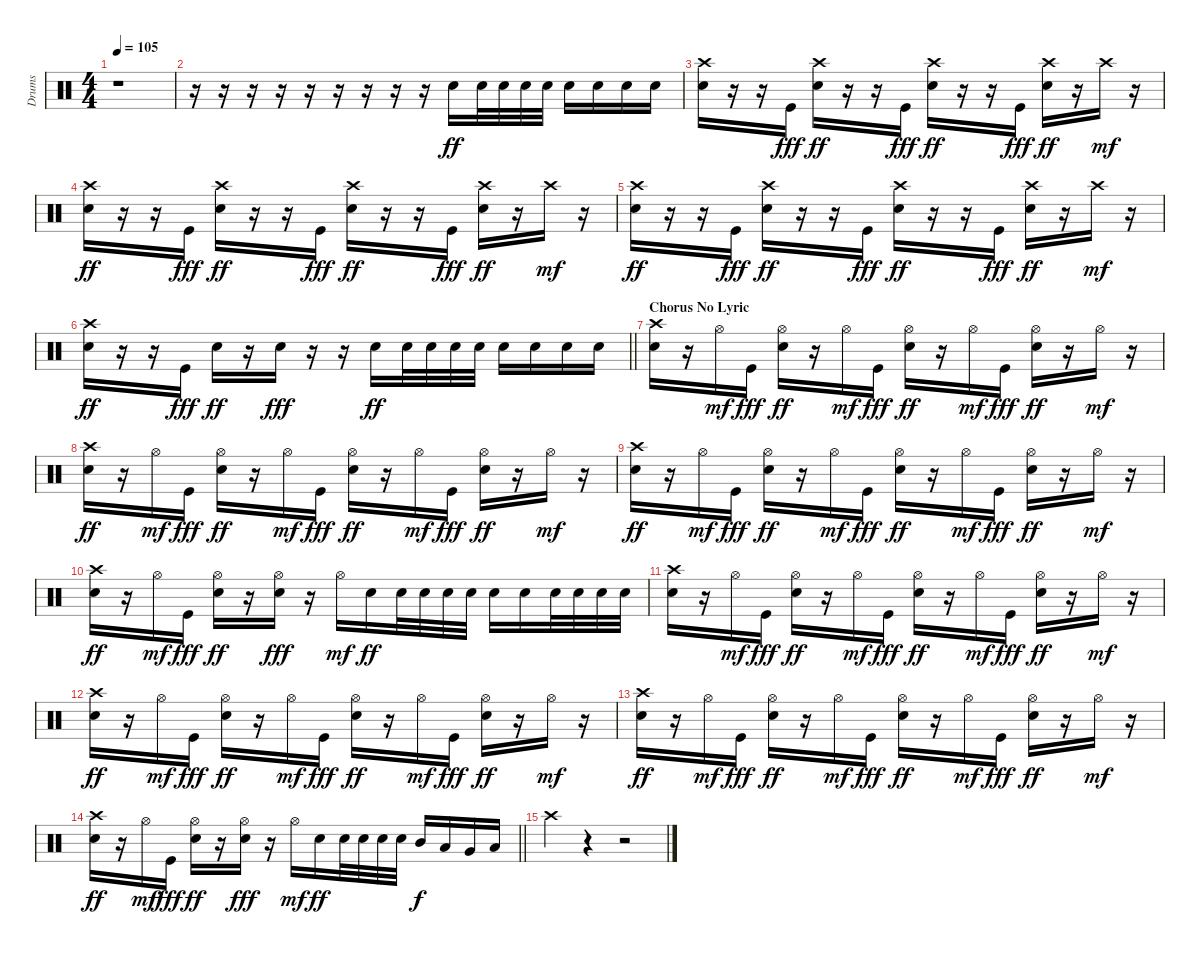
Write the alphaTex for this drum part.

\track ("Drums" "Drums") {instrument percussion}
\staff {score}
\articulation defaults
\ts (4 4)
\tempo 105
\clef neutral
\ks c
r.1{dy f} |
r.16 r.16 r.16 r.16 r.16 r.16 r.16 r.16 r.16 "Electric Snare (hit)".16{dy ff} "Electric Snare (hit)".32 "Electric Snare (hit)".32 "Electric Snare (hit)".32 "Electric Snare (hit)".32 "Electric Snare (hit)".16 "Electric Snare (hit)".16 "Electric Snare (hit)".16 "Electric Snare (hit)".16 |
("Crash high (hit)" "Electric Snare (hit)").16 r.16 r.16 "Kick (hit)".16{dy fff} ("Crash high (hit)" "Electric Snare (hit)").16{dy ff} r.16 r.16 "Kick (hit)".16{dy fff} ("Crash high (hit)" "Electric Snare (hit)").16{dy ff} r.16 r.16 "Kick (hit)".16{dy fff} ("Crash high (hit)" "Electric Snare (hit)").16{dy ff} r.16 "Crash high (hit)".16{dy mf} r.16 |
("Crash high (hit)" "Electric Snare (hit)").16{dy ff} r.16 r.16 "Kick (hit)".16{dy fff} ("Crash high (hit)" "Electric Snare (hit)").16{dy ff} r.16 r.16 "Kick (hit)".16{dy fff} ("Crash high (hit)" "Electric Snare (hit)").16{dy ff} r.16 r.16 "Kick (hit)".16{dy fff} ("Crash high (hit)" "Electric Snare (hit)").16{dy ff} r.16 "Crash high (hit)".16{dy mf} r.16 |
("Crash high (hit)" "Electric Snare (hit)").16{dy ff} r.16 r.16 "Kick (hit)".16{dy fff} ("Crash high (hit)" "Electric Snare (hit)").16{dy ff} r.16 r.16 "Kick (hit)".16{dy fff} ("Crash high (hit)" "Electric Snare (hit)").16{dy ff} r.16 r.16 "Kick (hit)".16{dy fff} ("Crash high (hit)" "Electric Snare (hit)").16{dy ff} r.16 "Crash high (hit)".16{dy mf} r.16 |
\barLineRight lightlight
("Crash high (hit)" "Electric Snare (hit)").16{dy ff} r.16 r.16 "Kick (hit)".16{dy fff} "Electric Snare (hit)".16{dy ff} r.16 "Electric Snare (hit)".16{dy fff} r.16 r.16 "Electric Snare (hit)".16{dy ff} "Electric Snare (hit)".32 "Electric Snare (hit)".32 "Electric Snare (hit)".32 "Electric Snare (hit)".32 "Electric Snare (hit)".16 "Electric Snare (hit)".16 "Electric Snare (hit)".16 "Electric Snare (hit)".16 |
\section ("" "Chorus No Lyric")
("Crash high (hit)" "Electric Snare (hit)").16 r.16 "Hi-Hat (open)".16{dy mf} "Kick (hit)".16{dy fff} ("Hi-Hat (open)" "Electric Snare (hit)").16{dy ff} r.16 "Hi-Hat (open)".16{dy mf} "Kick (hit)".16{dy fff} ("Hi-Hat (open)" "Electric Snare (hit)").16{dy ff} r.16 "Hi-Hat (open)".16{dy mf} "Kick (hit)".16{dy fff} ("Hi-Hat (open)" "Electric Snare (hit)").16{dy ff} r.16 "Hi-Hat (open)".16{dy mf} r.16 |
("Crash high (hit)" "Electric Snare (hit)").16{dy ff} r.16 "Hi-Hat (open)".16{dy mf} "Kick (hit)".16{dy fff} ("Hi-Hat (open)" "Electric Snare (hit)").16{dy ff} r.16 "Hi-Hat (open)".16{dy mf} "Kick (hit)".16{dy fff} ("Hi-Hat (open)" "Electric Snare (hit)").16{dy ff} r.16 "Hi-Hat (open)".16{dy mf} "Kick (hit)".16{dy fff} ("Hi-Hat (open)" "Electric Snare (hit)").16{dy ff} r.16 "Hi-Hat (open)".16{dy mf} r.16 |
("Crash high (hit)" "Electric Snare (hit)").16{dy ff} r.16 "Hi-Hat (open)".16{dy mf} "Kick (hit)".16{dy fff} ("Hi-Hat (open)" "Electric Snare (hit)").16{dy ff} r.16 "Hi-Hat (open)".16{dy mf} "Kick (hit)".16{dy fff} ("Hi-Hat (open)" "Electric Snare (hit)").16{dy ff} r.16 "Hi-Hat (open)".16{dy mf} "Kick (hit)".16{dy fff} ("Hi-Hat (open)" "Electric Snare (hit)").16{dy ff} r.16 "Hi-Hat (open)".16{dy mf} r.16 |
("Crash high (hit)" "Electric Snare (hit)").16{dy ff} r.16 "Hi-Hat (open)".16{dy mf} "Kick (hit)".16{dy fff} ("Hi-Hat (open)" "Electric Snare (hit)").16{dy ff} r.16 ("Hi-Hat (open)" "Electric Snare (hit)").16{dy fff} r.16 "Hi-Hat (open)".16{dy mf} "Electric Snare (hit)".16{dy ff} "Electric Snare (hit)".32 "Electric Snare (hit)".32 "Electric Snare (hit)".32 "Electric Snare (hit)".32 "Electric Snare (hit)".16 "Electric Snare (hit)".16 "Electric Snare (hit)".32 "Electric Snare (hit)".32 "Electric Snare (hit)".32 "Electric Snare (hit)".32 |
("Crash high (hit)" "Electric Snare (hit)").16 r.16 "Hi-Hat (open)".16{dy mf} "Kick (hit)".16{dy fff} ("Hi-Hat (open)" "Electric Snare (hit)").16{dy ff} r.16 "Hi-Hat (open)".16{dy mf} "Kick (hit)".16{dy fff} ("Hi-Hat (open)" "Electric Snare (hit)").16{dy ff} r.16 "Hi-Hat (open)".16{dy mf} "Kick (hit)".16{dy fff} ("Hi-Hat (open)" "Electric Snare (hit)").16{dy ff} r.16 "Hi-Hat (open)".16{dy mf} r.16 |
("Crash high (hit)" "Electric Snare (hit)").16{dy ff} r.16 "Hi-Hat (open)".16{dy mf} "Kick (hit)".16{dy fff} ("Hi-Hat (open)" "Electric Snare (hit)").16{dy ff} r.16 "Hi-Hat (open)".16{dy mf} "Kick (hit)".16{dy fff} ("Hi-Hat (open)" "Electric Snare (hit)").16{dy ff} r.16 "Hi-Hat (open)".16{dy mf} "Kick (hit)".16{dy fff} ("Hi-Hat (open)" "Electric Snare (hit)").16{dy ff} r.16 "Hi-Hat (open)".16{dy mf} r.16 |
("Crash high (hit)" "Electric Snare (hit)").16{dy ff} r.16 "Hi-Hat (open)".16{dy mf} "Kick (hit)".16{dy fff} ("Hi-Hat (open)" "Electric Snare (hit)").16{dy ff} r.16 "Hi-Hat (open)".16{dy mf} "Kick (hit)".16{dy fff} ("Hi-Hat (open)" "Electric Snare (hit)").16{dy ff} r.16 "Hi-Hat (open)".16{dy mf} "Kick (hit)".16{dy fff} ("Hi-Hat (open)" "Electric Snare (hit)").16{dy ff} r.16 "Hi-Hat (open)".16{dy mf} r.16 |
\barLineRight lightlight
("Crash high (hit)" "Electric Snare (hit)").16{dy ff} r.16 "Hi-Hat (open)".16{dy mf} "Kick (hit)".16{dy fff} ("Hi-Hat (open)" "Electric Snare (hit)").16{dy ff} r.16 ("Hi-Hat (open)" "Electric Snare (hit)").16{dy fff} r.16 "Hi-Hat (open)".16{dy mf} "Electric Snare (hit)".16{dy ff} "Electric Snare (hit)".32 "Electric Snare (hit)".32 "Electric Snare (hit)".32 "Electric Snare (hit)".32 "Mid Tom (hit)".16{dy f} "Low Tom (hit)".16 "Very Low Tom (hit)".16 "Low Floor Tom (hit)".16 |
"Crash high (hit)".4 r.4 r.2
